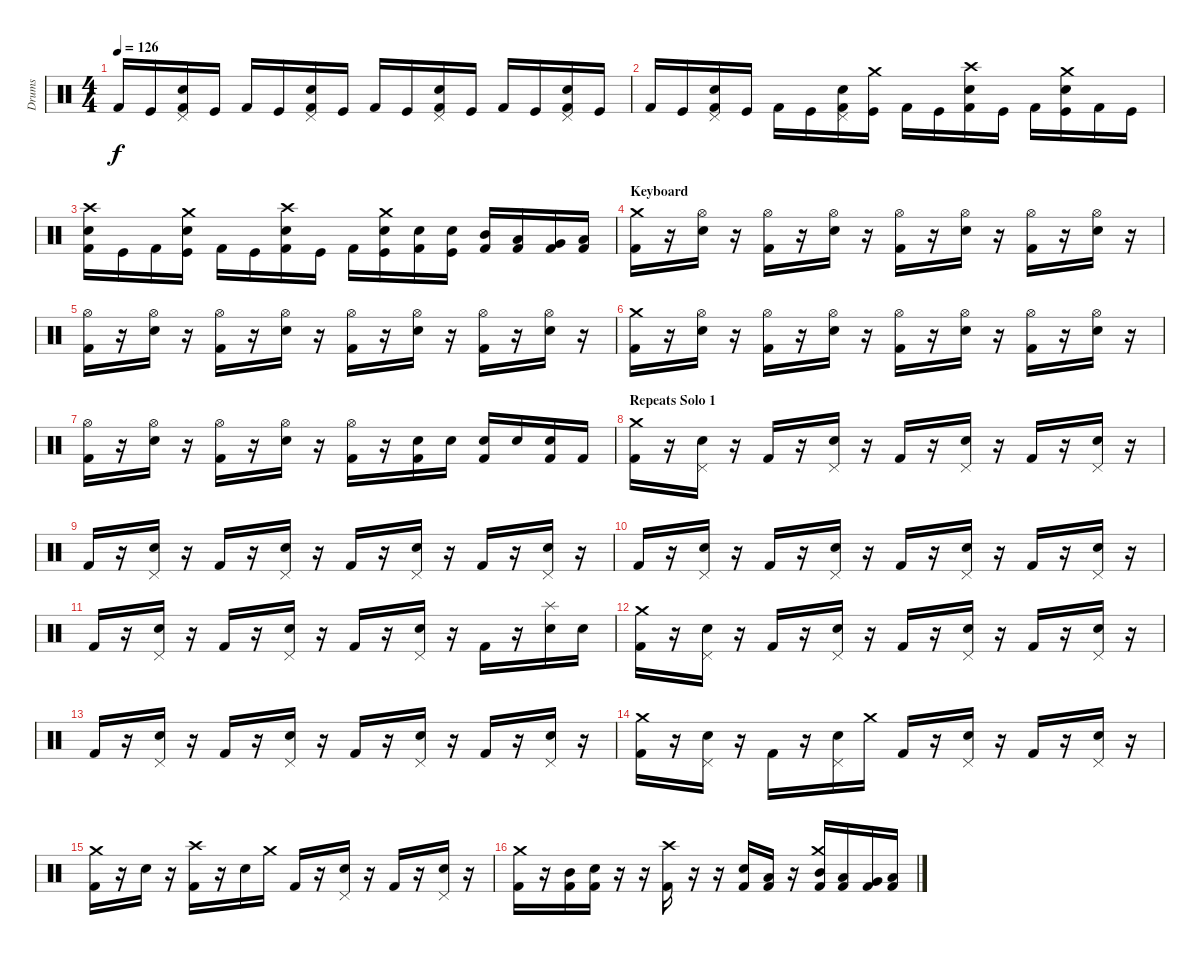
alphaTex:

\track ("Drums" "Drums") {instrument percussion}
\staff {score}
\articulation defaults
\ts (4 4)
\tempo 126
\clef neutral
\ks c "Kick (hit) 2".16{dy f} "Kick (hit)".16
("Pedal Hi-Hat (hit)" "Electric Snare (hit)" "Kick (hit) 2").16 "Kick (hit)".16 "Kick (hit) 2".16 "Kick (hit)".16 ("Pedal Hi-Hat (hit)" "Electric Snare (hit)" "Kick (hit) 2").16 "Kick (hit)".16 "Kick (hit) 2".16 "Kick (hit)".16 ("Pedal Hi-Hat (hit)" "Electric Snare (hit)" "Kick (hit) 2").16 "Kick (hit)".16 "Kick (hit) 2".16 "Kick (hit)".16 ("Pedal Hi-Hat (hit)" "Electric Snare (hit)" "Kick (hit) 2").16 "Kick (hit)".16 |
"Kick (hit) 2".16 "Kick (hit)".16 ("Pedal Hi-Hat (hit)" "Electric Snare (hit)" "Kick (hit) 2").16 "Kick (hit)".16 "Kick (hit) 2".16 "Kick (hit)".16 ("Pedal Hi-Hat (hit)" "Electric Snare (hit)" "Kick (hit) 2").16 ("Crash medium (hit)" "Kick (hit)").16 "Kick (hit) 2".16 "Kick (hit)".16 ("Crash high (hit)" "Electric Snare (hit)" "Kick (hit) 2").16 "Kick (hit)".16 "Kick (hit) 2".16 ("Crash medium (hit)" "Electric Snare (hit)" "Kick (hit)").16 "Kick (hit) 2".16 "Kick (hit)".16 |
("Crash high (hit)" "Electric Snare (hit)" "Kick (hit) 2").16 "Kick (hit)".16 "Kick (hit) 2".16 ("Crash medium (hit)" "Electric Snare (hit)" "Kick (hit)").16 "Kick (hit) 2".16 "Kick (hit)".16 ("Crash high (hit)" "Electric Snare (hit)" "Kick (hit) 2").16 "Kick (hit)".16 "Kick (hit) 2".16 ("Crash medium (hit)" "Electric Snare (hit)" "Kick (hit)").16 ("Electric Snare (hit)" "Kick (hit) 2").16 ("Electric Snare (hit)" "Kick (hit)").16 ("Mid Tom (hit)" "Kick (hit) 2").16 ("Low Tom (hit)" "Kick (hit) 2").16 ("Very Low Tom (hit)" "Kick (hit) 2").16 ("Low Floor Tom (hit)" "Kick (hit) 2").16 |
\section ("" "Keyboard")
("Crash medium (hit)" "Kick (hit) 2").16 r.16 ("Hi-Hat (open)" "Electric Snare (hit)").16 r.16 ("Hi-Hat (open)" "Kick (hit) 2").16 r.16 ("Hi-Hat (open)" "Electric Snare (hit)").16 r.16 ("Hi-Hat (open)" "Kick (hit) 2").16 r.16 ("Hi-Hat (open)" "Electric Snare (hit)").16 r.16 ("Hi-Hat (open)" "Kick (hit) 2").16 r.16 ("Hi-Hat (open)" "Electric Snare (hit)").16 r.16 |
("Hi-Hat (open)" "Kick (hit) 2").16 r.16 ("Hi-Hat (open)" "Electric Snare (hit)").16 r.16 ("Hi-Hat (open)" "Kick (hit) 2").16 r.16 ("Hi-Hat (open)" "Electric Snare (hit)").16 r.16 ("Hi-Hat (open)" "Kick (hit) 2").16 r.16 ("Hi-Hat (open)" "Electric Snare (hit)").16 r.16 ("Hi-Hat (open)" "Kick (hit) 2").16 r.16 ("Hi-Hat (open)" "Electric Snare (hit)").16 r.16 |
("Crash medium (hit)" "Kick (hit) 2").16 r.16 ("Hi-Hat (open)" "Electric Snare (hit)").16 r.16 ("Hi-Hat (open)" "Kick (hit) 2").16 r.16 ("Hi-Hat (open)" "Electric Snare (hit)").16 r.16 ("Hi-Hat (open)" "Kick (hit) 2").16 r.16 ("Hi-Hat (open)" "Electric Snare (hit)").16 r.16 ("Hi-Hat (open)" "Kick (hit) 2").16 r.16 ("Hi-Hat (open)" "Electric Snare (hit)").16 r.16 |
("Hi-Hat (open)" "Kick (hit) 2").16 r.16 ("Hi-Hat (open)" "Electric Snare (hit)").16 r.16 ("Hi-Hat (open)" "Kick (hit) 2").16 r.16 ("Hi-Hat (open)" "Electric Snare (hit)").16 r.16 ("Hi-Hat (open)" "Kick (hit) 2").16 r.16 ("Electric Snare (hit)" "Kick (hit) 2").16 "Electric Snare (hit)".16 ("Electric Snare (hit)" "Kick (hit) 2").16 "Electric Snare (hit)".16 ("Electric Snare (hit)" "Kick (hit) 2").16 "Kick (hit) 2".16 |
\section ("" "Repeats Solo 1")
("Crash medium (hit)" "Kick (hit) 2").16 r.16 ("Pedal Hi-Hat (hit)" "Electric Snare (hit)").16 r.16 "Kick (hit) 2".16 r.16 ("Pedal Hi-Hat (hit)" "Electric Snare (hit)").16 r.16 "Kick (hit) 2".16 r.16 ("Pedal Hi-Hat (hit)" "Electric Snare (hit)").16 r.16 "Kick (hit) 2".16 r.16 ("Pedal Hi-Hat (hit)" "Electric Snare (hit)").16 r.16 |
"Kick (hit) 2".16 r.16 ("Pedal Hi-Hat (hit)" "Electric Snare (hit)").16 r.16 "Kick (hit) 2".16 r.16 ("Pedal Hi-Hat (hit)" "Electric Snare (hit)").16 r.16 "Kick (hit) 2".16 r.16 ("Pedal Hi-Hat (hit)" "Electric Snare (hit)").16 r.16 "Kick (hit) 2".16 r.16 ("Pedal Hi-Hat (hit)" "Electric Snare (hit)").16 r.16 |
"Kick (hit) 2".16 r.16 ("Pedal Hi-Hat (hit)" "Electric Snare (hit)").16 r.16 "Kick (hit) 2".16 r.16 ("Pedal Hi-Hat (hit)" "Electric Snare (hit)").16 r.16 "Kick (hit) 2".16 r.16 ("Pedal Hi-Hat (hit)" "Electric Snare (hit)").16 r.16 "Kick (hit) 2".16 r.16 ("Pedal Hi-Hat (hit)" "Electric Snare (hit)").16 r.16 |
"Kick (hit) 2".16 r.16 ("Pedal Hi-Hat (hit)" "Electric Snare (hit)").16 r.16 "Kick (hit) 2".16 r.16 ("Pedal Hi-Hat (hit)" "Electric Snare (hit)").16 r.16 "Kick (hit) 2".16 r.16 ("Pedal Hi-Hat (hit)" "Electric Snare (hit)").16 r.16 "Kick (hit) 2".16 r.16 ("Splash (hit)" "Electric Snare (hit)").16 "Electric Snare (hit)".16 |
("Crash medium (hit)" "Kick (hit) 2").16 r.16 ("Pedal Hi-Hat (hit)" "Electric Snare (hit)").16 r.16 "Kick (hit) 2".16 r.16 ("Pedal Hi-Hat (hit)" "Electric Snare (hit)").16 r.16 "Kick (hit) 2".16 r.16 ("Pedal Hi-Hat (hit)" "Electric Snare (hit)").16 r.16 "Kick (hit) 2".16 r.16 ("Pedal Hi-Hat (hit)" "Electric Snare (hit)").16 r.16 |
"Kick (hit) 2".16 r.16 ("Pedal Hi-Hat (hit)" "Electric Snare (hit)").16 r.16 "Kick (hit) 2".16 r.16 ("Pedal Hi-Hat (hit)" "Electric Snare (hit)").16 r.16 "Kick (hit) 2".16 r.16 ("Pedal Hi-Hat (hit)" "Electric Snare (hit)").16 r.16 "Kick (hit) 2".16 r.16 ("Pedal Hi-Hat (hit)" "Electric Snare (hit)").16 r.16 |
("Crash medium (hit)" "Kick (hit) 2").16 r.16 ("Pedal Hi-Hat (hit)" "Electric Snare (hit)").16 r.16 "Kick (hit) 2".16 r.16 ("Pedal Hi-Hat (hit)" "Electric Snare (hit)").16 "Crash medium (hit)".16 "Kick (hit) 2".16 r.16 ("Pedal Hi-Hat (hit)" "Electric Snare (hit)").16 r.16 "Kick (hit) 2".16 r.16 ("Pedal Hi-Hat (hit)" "Electric Snare (hit)").16 r.16 |
("Crash medium (hit)" "Kick (hit) 2").16 r.16 "Electric Snare (hit)".16 r.16 ("Crash high (hit)" "Kick (hit) 2").16 r.16 "Electric Snare (hit)".16 "Crash medium (hit)".16 "Kick (hit) 2".16 r.16 ("Pedal Hi-Hat (hit)" "Electric Snare (hit)").16 r.16 "Kick (hit) 2".16 r.16 ("Pedal Hi-Hat (hit)" "Electric Snare (hit)").16 r.16 |
("Crash medium (hit)" "Kick (hit) 2").16 r.16 ("Mid Tom (hit)" "Kick (hit) 2").16 ("Electric Snare (hit)" "Kick (hit) 2").16 r.16 r.16 ("Crash high (hit)" "Kick (hit) 2").16 r.16 r.16 ("Electric Snare (hit)" "Kick (hit) 2").16 ("Low Tom (hit)" "Kick (hit) 2").16 r.16 ("Crash medium (hit)" "Mid Tom (hit)" "Kick (hit) 2").16 ("Low Tom (hit)" "Kick (hit) 2").16 ("Very Low Tom (hit)" "Kick (hit) 2").16 ("Low Floor Tom (hit)" "Kick (hit) 2").16
